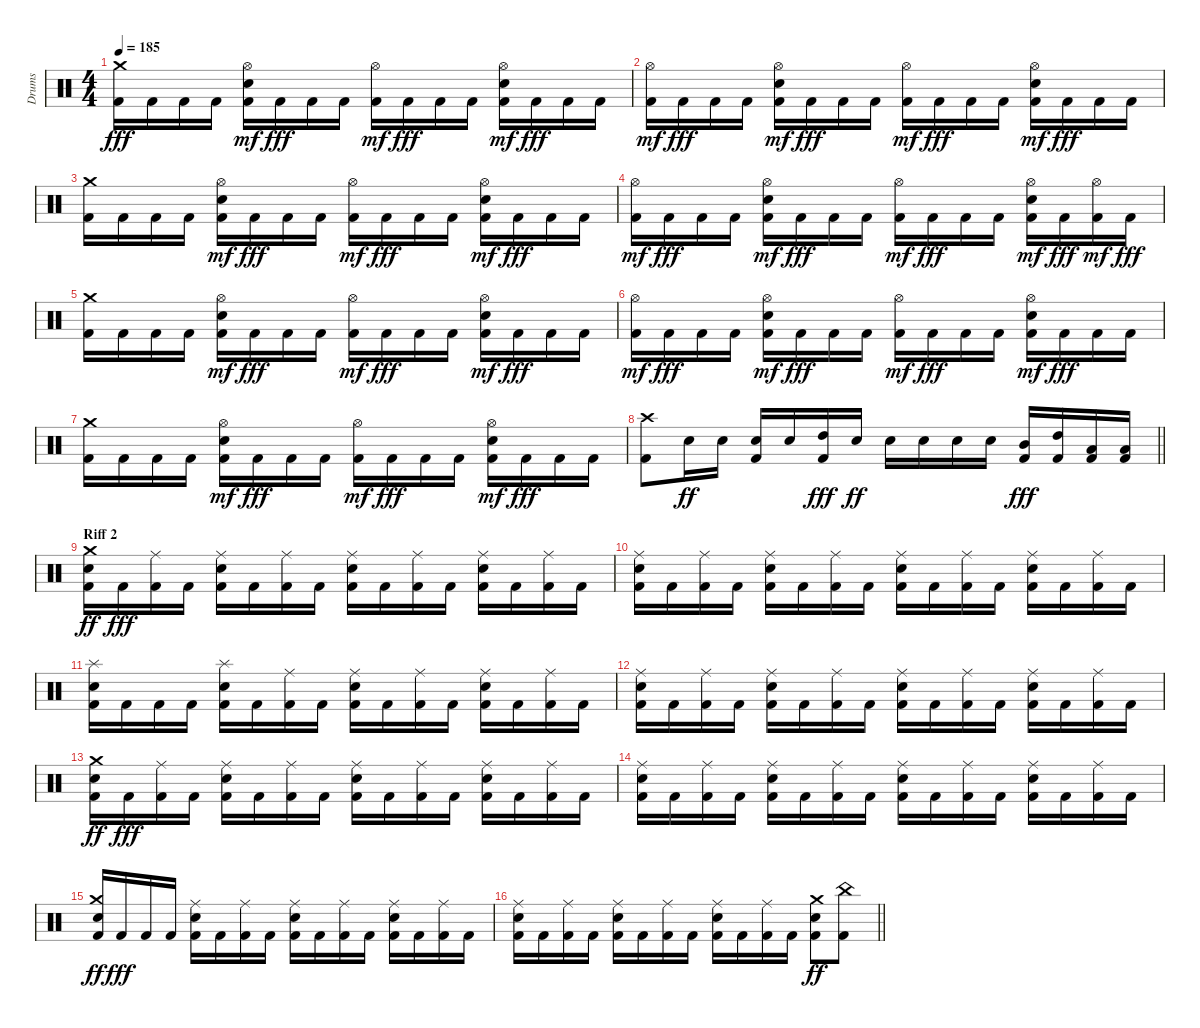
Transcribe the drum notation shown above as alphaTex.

\track ("Drums" "Drums") {instrument percussion}
\staff {score}
\articulation defaults
\ts (4 4)
\tempo 185
\clef neutral
\ks c
("Kick (hit) 2" "Crash medium (hit)").16{dy fff} "Kick (hit) 2".16 "Kick (hit) 2".16 "Kick (hit) 2".16 ("Kick (hit) 2" "Snare (hit) 2" "Hi-Hat (open)").16{dy mf} "Kick (hit) 2".16{dy fff} "Kick (hit) 2".16 "Kick (hit) 2".16 ("Kick (hit) 2" "Hi-Hat (open)").16{dy mf} "Kick (hit) 2".16{dy fff} "Kick (hit) 2".16 "Kick (hit) 2".16 ("Kick (hit) 2" "Snare (hit) 2" "Hi-Hat (open)").16{dy mf} "Kick (hit) 2".16{dy fff} "Kick (hit) 2".16 "Kick (hit) 2".16 |
("Kick (hit) 2" "Hi-Hat (open)").16{dy mf} "Kick (hit) 2".16{dy fff} "Kick (hit) 2".16 "Kick (hit) 2".16 ("Kick (hit) 2" "Snare (hit) 2" "Hi-Hat (open)").16{dy mf} "Kick (hit) 2".16{dy fff} "Kick (hit) 2".16 "Kick (hit) 2".16 ("Kick (hit) 2" "Hi-Hat (open)").16{dy mf} "Kick (hit) 2".16{dy fff} "Kick (hit) 2".16 "Kick (hit) 2".16 ("Kick (hit) 2" "Snare (hit) 2" "Hi-Hat (open)").16{dy mf} "Kick (hit) 2".16{dy fff} "Kick (hit) 2".16 "Kick (hit) 2".16 |
("Kick (hit) 2" "Crash medium (hit)").16 "Kick (hit) 2".16 "Kick (hit) 2".16 "Kick (hit) 2".16 ("Kick (hit) 2" "Snare (hit) 2" "Hi-Hat (open)").16{dy mf} "Kick (hit) 2".16{dy fff} "Kick (hit) 2".16 "Kick (hit) 2".16 ("Kick (hit) 2" "Hi-Hat (open)").16{dy mf} "Kick (hit) 2".16{dy fff} "Kick (hit) 2".16 "Kick (hit) 2".16 ("Kick (hit) 2" "Snare (hit) 2" "Hi-Hat (open)").16{dy mf} "Kick (hit) 2".16{dy fff} "Kick (hit) 2".16 "Kick (hit) 2".16 |
("Kick (hit) 2" "Hi-Hat (open)").16{dy mf} "Kick (hit) 2".16{dy fff} "Kick (hit) 2".16 "Kick (hit) 2".16 ("Kick (hit) 2" "Snare (hit) 2" "Hi-Hat (open)").16{dy mf} "Kick (hit) 2".16{dy fff} "Kick (hit) 2".16 "Kick (hit) 2".16 ("Kick (hit) 2" "Hi-Hat (open)").16{dy mf} "Kick (hit) 2".16{dy fff} "Kick (hit) 2".16 "Kick (hit) 2".16 ("Kick (hit) 2" "Snare (hit) 2" "Hi-Hat (open)").16{dy mf} "Kick (hit) 2".16{dy fff} ("Kick (hit) 2" "Hi-Hat (open)").16{dy mf} "Kick (hit) 2".16{dy fff} |
("Kick (hit) 2" "Crash medium (hit)").16 "Kick (hit) 2".16 "Kick (hit) 2".16 "Kick (hit) 2".16 ("Kick (hit) 2" "Snare (hit) 2" "Hi-Hat (open)").16{dy mf} "Kick (hit) 2".16{dy fff} "Kick (hit) 2".16 "Kick (hit) 2".16 ("Kick (hit) 2" "Hi-Hat (open)").16{dy mf} "Kick (hit) 2".16{dy fff} "Kick (hit) 2".16 "Kick (hit) 2".16 ("Kick (hit) 2" "Snare (hit) 2" "Hi-Hat (open)").16{dy mf} "Kick (hit) 2".16{dy fff} "Kick (hit) 2".16 "Kick (hit) 2".16 |
("Kick (hit) 2" "Hi-Hat (open)").16{dy mf} "Kick (hit) 2".16{dy fff} "Kick (hit) 2".16 "Kick (hit) 2".16 ("Kick (hit) 2" "Snare (hit) 2" "Hi-Hat (open)").16{dy mf} "Kick (hit) 2".16{dy fff} "Kick (hit) 2".16 "Kick (hit) 2".16 ("Kick (hit) 2" "Hi-Hat (open)").16{dy mf} "Kick (hit) 2".16{dy fff} "Kick (hit) 2".16 "Kick (hit) 2".16 ("Kick (hit) 2" "Snare (hit) 2" "Hi-Hat (open)").16{dy mf} "Kick (hit) 2".16{dy fff} "Kick (hit) 2".16 "Kick (hit) 2".16 |
("Kick (hit) 2" "Crash medium (hit)").16 "Kick (hit) 2".16 "Kick (hit) 2".16 "Kick (hit) 2".16 ("Kick (hit) 2" "Snare (hit) 2" "Hi-Hat (open)").16{dy mf} "Kick (hit) 2".16{dy fff} "Kick (hit) 2".16 "Kick (hit) 2".16 ("Kick (hit) 2" "Hi-Hat (open)").16{dy mf} "Kick (hit) 2".16{dy fff} "Kick (hit) 2".16 "Kick (hit) 2".16 ("Kick (hit) 2" "Snare (hit) 2" "Hi-Hat (open)").16{dy mf} "Kick (hit) 2".16{dy fff} "Kick (hit) 2".16 "Kick (hit) 2".16 |
\barLineRight lightlight
("Kick (hit) 2" "Crash high (hit)").8 "Snare (hit) 2".16{dy ff} "Snare (hit) 2".16 ("Kick (hit) 2" "Snare (hit) 2").16 "Snare (hit) 2".16 ("Kick (hit) 2" "High Tom (hit)").16{dy fff} "Snare (hit) 2".16{dy ff} "Snare (hit) 2".16 "Snare (hit) 2".16 "Snare (hit) 2".16 "Snare (hit) 2".16 ("Kick (hit) 2" "Mid Tom (hit)").16{dy fff} ("Kick (hit) 2" "High Tom (hit)").16 ("Kick (hit) 2" "Low Tom (hit)").16 ("Kick (hit) 2" "Low Tom (hit)").16 |
\section ("" "Riff 2")
("Kick (hit) 2" "Snare (hit) 2" "Crash medium (hit)").16{dy ff} "Kick (hit) 2".16{dy fff} ("Kick (hit) 2" "Ride (middle)").16 "Kick (hit) 2".16 ("Kick (hit) 2" "Snare (hit) 2" "Ride (middle)").16 "Kick (hit) 2".16 ("Kick (hit) 2" "Ride (middle)").16 "Kick (hit) 2".16 ("Kick (hit) 2" "Snare (hit) 2" "Ride (middle)").16 "Kick (hit) 2".16 ("Kick (hit) 2" "Ride (middle)").16 "Kick (hit) 2".16 ("Kick (hit) 2" "Snare (hit) 2" "Ride (middle)").16 "Kick (hit) 2".16 ("Kick (hit) 2" "Ride (middle)").16 "Kick (hit) 2".16 |
("Kick (hit) 2" "Snare (hit) 2" "Ride (middle)").16 "Kick (hit) 2".16 ("Kick (hit) 2" "Ride (middle)").16 "Kick (hit) 2".16 ("Kick (hit) 2" "Snare (hit) 2" "Ride (middle)").16 "Kick (hit) 2".16 ("Kick (hit) 2" "Ride (middle)").16 "Kick (hit) 2".16 ("Kick (hit) 2" "Snare (hit) 2" "Ride (middle)").16 "Kick (hit) 2".16 ("Kick (hit) 2" "Ride (middle)").16 "Kick (hit) 2".16 ("Kick (hit) 2" "Snare (hit) 2" "Ride (middle)").16 "Kick (hit) 2".16 ("Kick (hit) 2" "Ride (middle)").16 "Kick (hit) 2".16 |
("Kick (hit) 2" "Snare (hit) 2" "Splash (hit)").16 "Kick (hit) 2".16 "Kick (hit) 2".16 "Kick (hit) 2".16 ("Kick (hit) 2" "Snare (hit) 2" "Splash (hit)").16 "Kick (hit) 2".16 ("Kick (hit) 2" "Ride (middle)").16 "Kick (hit) 2".16 ("Kick (hit) 2" "Snare (hit) 2" "Ride (middle)").16 "Kick (hit) 2".16 ("Kick (hit) 2" "Ride (middle)").16 "Kick (hit) 2".16 ("Kick (hit) 2" "Snare (hit) 2" "Ride (middle)").16 "Kick (hit) 2".16 ("Kick (hit) 2" "Ride (middle)").16 "Kick (hit) 2".16 |
("Kick (hit) 2" "Snare (hit) 2" "Ride (middle)").16 "Kick (hit) 2".16 ("Kick (hit) 2" "Ride (middle)").16 "Kick (hit) 2".16 ("Kick (hit) 2" "Snare (hit) 2" "Ride (middle)").16 "Kick (hit) 2".16 ("Kick (hit) 2" "Ride (middle)").16 "Kick (hit) 2".16 ("Kick (hit) 2" "Snare (hit) 2" "Ride (middle)").16 "Kick (hit) 2".16 ("Kick (hit) 2" "Ride (middle)").16 "Kick (hit) 2".16 ("Kick (hit) 2" "Snare (hit) 2" "Ride (middle)").16 "Kick (hit) 2".16 ("Kick (hit) 2" "Ride (middle)").16 "Kick (hit) 2".16 |
("Kick (hit) 2" "Snare (hit) 2" "Crash medium (hit)").16{dy ff} "Kick (hit) 2".16{dy fff} ("Kick (hit) 2" "Ride (middle)").16 "Kick (hit) 2".16 ("Kick (hit) 2" "Snare (hit) 2" "Ride (middle)").16 "Kick (hit) 2".16 ("Kick (hit) 2" "Ride (middle)").16 "Kick (hit) 2".16 ("Kick (hit) 2" "Snare (hit) 2" "Ride (middle)").16 "Kick (hit) 2".16 ("Kick (hit) 2" "Ride (middle)").16 "Kick (hit) 2".16 ("Kick (hit) 2" "Snare (hit) 2" "Ride (middle)").16 "Kick (hit) 2".16 ("Kick (hit) 2" "Ride (middle)").16 "Kick (hit) 2".16 |
("Kick (hit) 2" "Snare (hit) 2" "Ride (middle)").16 "Kick (hit) 2".16 ("Kick (hit) 2" "Ride (middle)").16 "Kick (hit) 2".16 ("Kick (hit) 2" "Snare (hit) 2" "Ride (middle)").16 "Kick (hit) 2".16 ("Kick (hit) 2" "Ride (middle)").16 "Kick (hit) 2".16 ("Kick (hit) 2" "Snare (hit) 2" "Ride (middle)").16 "Kick (hit) 2".16 ("Kick (hit) 2" "Ride (middle)").16 "Kick (hit) 2".16 ("Kick (hit) 2" "Snare (hit) 2" "Ride (middle)").16 "Kick (hit) 2".16 ("Kick (hit) 2" "Ride (middle)").16 "Kick (hit) 2".16 |
("Kick (hit) 2" "Snare (hit) 2" "Crash medium (hit)").16{dy ff} "Kick (hit) 2".16{dy fff} "Kick (hit) 2".16 "Kick (hit) 2".16 ("Kick (hit) 2" "Snare (hit) 2" "Ride (middle)").16 "Kick (hit) 2".16 ("Kick (hit) 2" "Ride (middle)").16 "Kick (hit) 2".16 ("Kick (hit) 2" "Snare (hit) 2" "Ride (middle)").16 "Kick (hit) 2".16 ("Kick (hit) 2" "Ride (middle)").16 "Kick (hit) 2".16 ("Kick (hit) 2" "Snare (hit) 2" "Ride (middle)").16 "Kick (hit) 2".16 ("Kick (hit) 2" "Ride (middle)").16 "Kick (hit) 2".16 |
\barLineRight lightlight
("Kick (hit) 2" "Snare (hit) 2" "Ride (middle)").16 "Kick (hit) 2".16 ("Kick (hit) 2" "Ride (middle)").16 "Kick (hit) 2".16 ("Kick (hit) 2" "Snare (hit) 2" "Ride (middle)").16 "Kick (hit) 2".16 ("Kick (hit) 2" "Ride (middle)").16 "Kick (hit) 2".16 ("Kick (hit) 2" "Snare (hit) 2" "Ride (middle)").16 "Kick (hit) 2".16 ("Kick (hit) 2" "Ride (middle)").16 "Kick (hit) 2".16 ("Kick (hit) 2" "Snare (hit) 2" "Crash medium (hit)").8{dy ff} ("Kick (hit) 2" "China (hit)").8
